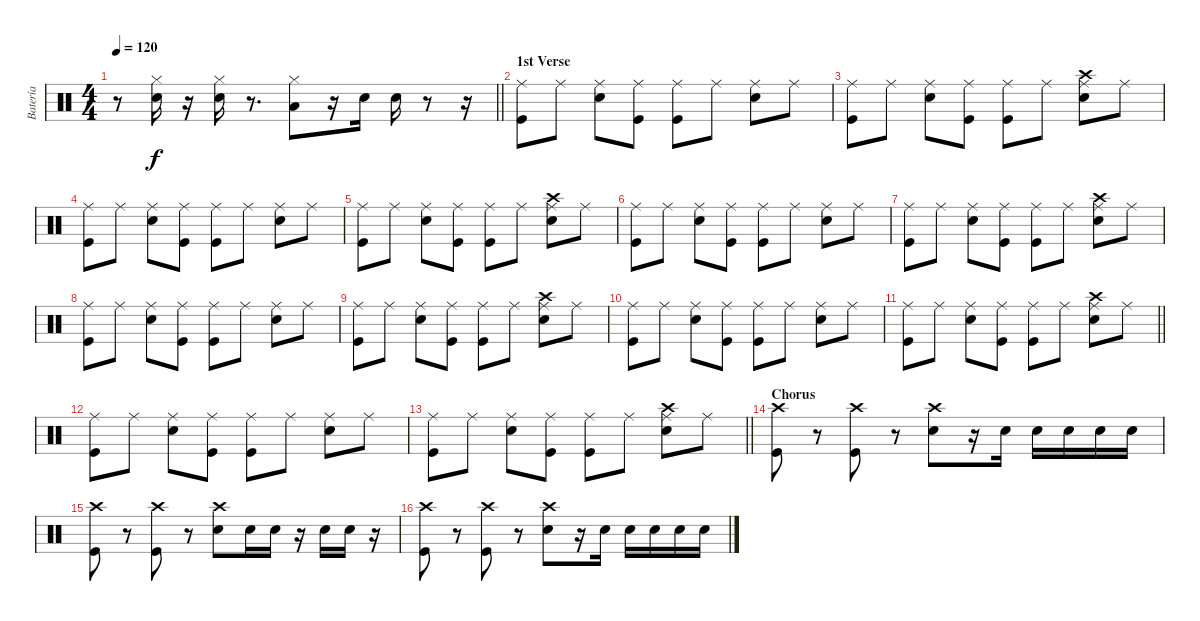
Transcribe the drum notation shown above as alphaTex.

\track ("Batería" "Batería") {instrument percussion}
\staff {score}
\articulation defaults
\ts (4 4)
\tempo 120
\clef neutral
\barLineRight lightlight
\ks c
r.8{dy f} ("Hi-Hat (closed)" "Electric Snare (hit)").16 r.16 ("Hi-Hat (closed)" "Electric Snare (hit)").16 r.8{d} ("Hi-Hat (closed)" "Low Tom (hit)").8 r.16 "Electric Snare (hit)".16 "Electric Snare (hit)".16 r.8 r.16 |
\section ("" "1st Verse")
("Ride (middle)" "Kick (hit)").8 "Ride (middle)".8 ("Ride (middle)" "Electric Snare (hit)").8 ("Ride (middle)" "Kick (hit)").8 ("Ride (middle)" "Kick (hit)").8 "Ride (middle)".8 ("Ride (middle)" "Electric Snare (hit)").8 "Ride (middle)".8 |
("Ride (middle)" "Kick (hit)").8 "Ride (middle)".8 ("Ride (middle)" "Electric Snare (hit)").8 ("Ride (middle)" "Kick (hit)").8 ("Ride (middle)" "Kick (hit)").8 "Ride (middle)".8 ("Ride (middle)" "Electric Snare (hit)" "Crash high (hit)").8 "Ride (middle)".8 |
("Ride (middle)" "Kick (hit)").8 "Ride (middle)".8 ("Ride (middle)" "Electric Snare (hit)").8 ("Ride (middle)" "Kick (hit)").8 ("Ride (middle)" "Kick (hit)").8 "Ride (middle)".8 ("Ride (middle)" "Electric Snare (hit)").8 "Ride (middle)".8 |
("Ride (middle)" "Kick (hit)").8 "Ride (middle)".8 ("Ride (middle)" "Electric Snare (hit)").8 ("Ride (middle)" "Kick (hit)").8 ("Ride (middle)" "Kick (hit)").8 "Ride (middle)".8 ("Ride (middle)" "Electric Snare (hit)" "Crash high (hit)").8 "Ride (middle)".8 |
("Ride (middle)" "Kick (hit)").8 "Ride (middle)".8 ("Ride (middle)" "Electric Snare (hit)").8 ("Ride (middle)" "Kick (hit)").8 ("Ride (middle)" "Kick (hit)").8 "Ride (middle)".8 ("Ride (middle)" "Electric Snare (hit)").8 "Ride (middle)".8 |
("Ride (middle)" "Kick (hit)").8 "Ride (middle)".8 ("Ride (middle)" "Electric Snare (hit)").8 ("Ride (middle)" "Kick (hit)").8 ("Ride (middle)" "Kick (hit)").8 "Ride (middle)".8 ("Ride (middle)" "Electric Snare (hit)" "Crash high (hit)").8 "Ride (middle)".8 |
("Ride (middle)" "Kick (hit)").8 "Ride (middle)".8 ("Ride (middle)" "Electric Snare (hit)").8 ("Ride (middle)" "Kick (hit)").8 ("Ride (middle)" "Kick (hit)").8 "Ride (middle)".8 ("Ride (middle)" "Electric Snare (hit)").8 "Ride (middle)".8 |
("Ride (middle)" "Kick (hit)").8 "Ride (middle)".8 ("Ride (middle)" "Electric Snare (hit)").8 ("Ride (middle)" "Kick (hit)").8 ("Ride (middle)" "Kick (hit)").8 "Ride (middle)".8 ("Ride (middle)" "Electric Snare (hit)" "Crash high (hit)").8 "Ride (middle)".8 |
("Ride (middle)" "Kick (hit)").8 "Ride (middle)".8 ("Ride (middle)" "Electric Snare (hit)").8 ("Ride (middle)" "Kick (hit)").8 ("Ride (middle)" "Kick (hit)").8 "Ride (middle)".8 ("Ride (middle)" "Electric Snare (hit)").8 "Ride (middle)".8 |
\barLineRight lightlight
("Ride (middle)" "Kick (hit)").8 "Ride (middle)".8 ("Ride (middle)" "Electric Snare (hit)").8 ("Ride (middle)" "Kick (hit)").8 ("Ride (middle)" "Kick (hit)").8 "Ride (middle)".8 ("Ride (middle)" "Electric Snare (hit)" "Crash high (hit)").8 "Ride (middle)".8 |
("Ride (middle)" "Kick (hit)").8 "Ride (middle)".8 ("Ride (middle)" "Electric Snare (hit)").8 ("Ride (middle)" "Kick (hit)").8 ("Ride (middle)" "Kick (hit)").8 "Ride (middle)".8 ("Ride (middle)" "Electric Snare (hit)").8 "Ride (middle)".8 |
\barLineRight lightlight
("Ride (middle)" "Kick (hit)").8 "Ride (middle)".8 ("Ride (middle)" "Electric Snare (hit)").8 ("Ride (middle)" "Kick (hit)").8 ("Ride (middle)" "Kick (hit)").8 "Ride (middle)".8 ("Ride (middle)" "Electric Snare (hit)" "Crash high (hit)").8 "Ride (middle)".8 |
\section ("" "Chorus")
("Crash high (hit)" "Kick (hit)").8 r.8 ("Crash high (hit)" "Kick (hit)").8 r.8 ("Crash high (hit)" "Electric Snare (hit)").8 r.16 "Electric Snare (hit)".16 "Electric Snare (hit)".16 "Electric Snare (hit)".16 "Electric Snare (hit)".16 "Electric Snare (hit)".16 |
("Crash high (hit)" "Kick (hit)").8 r.8 ("Crash high (hit)" "Kick (hit)").8 r.8 ("Crash high (hit)" "Electric Snare (hit)").8 "Electric Snare (hit)".16 "Electric Snare (hit)".16 r.16 "Electric Snare (hit)".16 "Electric Snare (hit)".16 r.16 |
("Crash high (hit)" "Kick (hit)").8 r.8 ("Crash high (hit)" "Kick (hit)").8 r.8 ("Crash high (hit)" "Electric Snare (hit)").8 r.16 "Electric Snare (hit)".16 "Electric Snare (hit)".16 "Electric Snare (hit)".16 "Electric Snare (hit)".16 "Electric Snare (hit)".16
